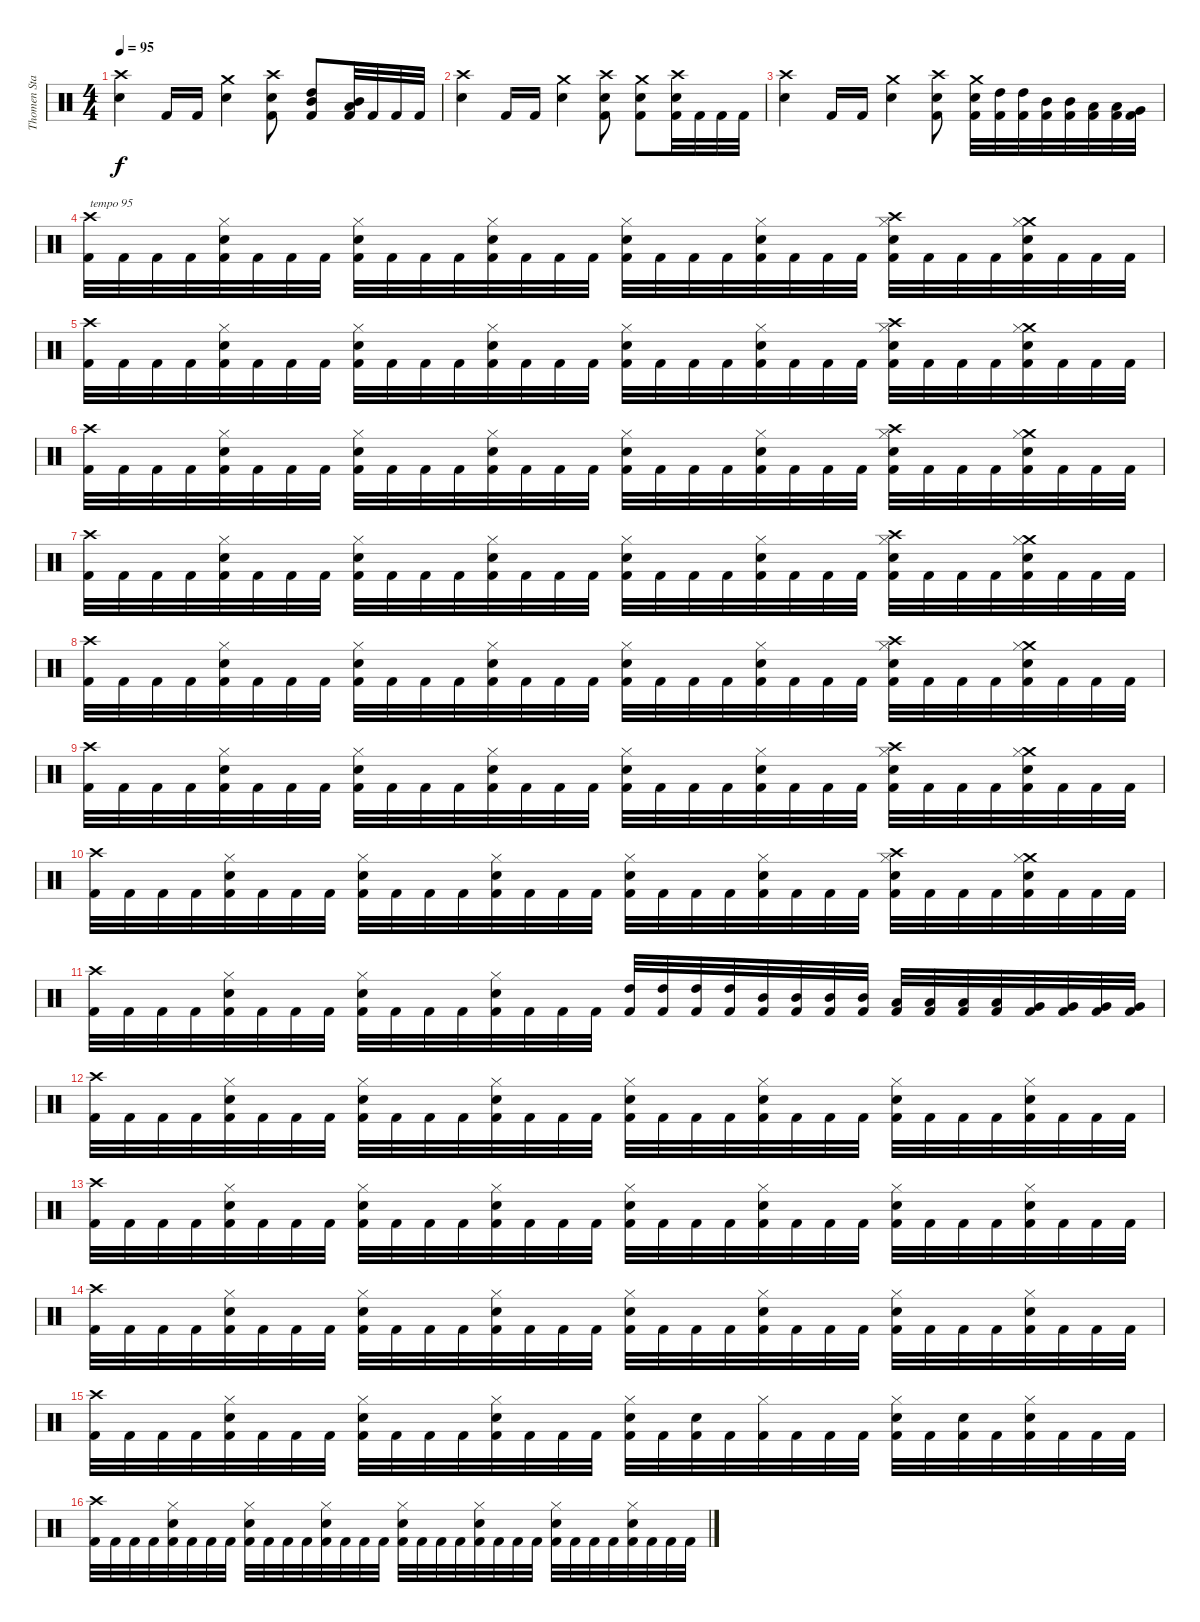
\track ("Thomen Stauch" "Thomen Sta") {instrument percussion}
\staff {score}
\articulation defaults
\ts (4 4)
\tempo 95
\clef neutral
\ks c
("Crash high (hit)" "Snare (hit) 2").4{dy f} "Kick (hit) 2".16 "Kick (hit) 2".16 ("Crash medium (hit)" "Snare (hit) 2").4 ("Crash high (hit)" "Snare (hit) 2" "Kick (hit) 2").8 ("High Tom (hit)" "Mid Tom (hit)" "Kick (hit) 2").8 ("Mid Tom (hit)" "Low Tom (hit)" "Kick (hit) 2").32 "Kick (hit) 2".32 "Kick (hit) 2".32 "Kick (hit) 2".32 |
("Crash high (hit)" "Snare (hit) 2").4 "Kick (hit) 2".16 "Kick (hit) 2".16 ("Crash medium (hit)" "Snare (hit) 2").4 ("Crash high (hit)" "Snare (hit) 2" "Kick (hit) 2").8 ("Crash medium (hit)" "Snare (hit) 2" "Kick (hit) 2").8 ("Crash high (hit)" "Snare (hit) 2" "Kick (hit) 2").32 "Kick (hit) 2".32 "Kick (hit) 2".32 "Kick (hit) 2".32 |
("Crash high (hit)" "Snare (hit) 2").4 "Kick (hit) 2".16 "Kick (hit) 2".16 ("Crash medium (hit)" "Snare (hit) 2").4 ("Crash high (hit)" "Snare (hit) 2" "Kick (hit) 2").8 ("Crash medium (hit)" "Snare (hit) 2" "Kick (hit) 2").32 ("High Tom (hit)" "Kick (hit) 2").32 ("High Tom (hit)" "Kick (hit) 2").32 ("Mid Tom (hit)" "Kick (hit) 2").32 ("Mid Tom (hit)" "Kick (hit) 2").32 ("Low Tom (hit)" "Kick (hit) 2").32 ("Low Tom (hit)" "Kick (hit) 2").32 ("Very Low Tom (hit)" "Kick (hit) 2").32 |
("Crash high (hit)" "Kick (hit) 2").32{txt "tempo 95"} "Kick (hit) 2".32 "Kick (hit) 2".32 "Kick (hit) 2".32 ("Hi-Hat (closed)" "Snare (hit) 2" "Kick (hit) 2").32 "Kick (hit) 2".32 "Kick (hit) 2".32 "Kick (hit) 2".32 ("Hi-Hat (closed)" "Snare (hit) 2" "Kick (hit) 2").32 "Kick (hit) 2".32 "Kick (hit) 2".32 "Kick (hit) 2".32 ("Hi-Hat (closed)" "Snare (hit) 2" "Kick (hit) 2").32 "Kick (hit) 2".32 "Kick (hit) 2".32 "Kick (hit) 2".32 ("Hi-Hat (closed)" "Snare (hit) 2" "Kick (hit) 2").32 "Kick (hit) 2".32 "Kick (hit) 2".32 "Kick (hit) 2".32 ("Hi-Hat (closed)" "Snare (hit) 2" "Kick (hit) 2").32 "Kick (hit) 2".32 "Kick (hit) 2".32 "Kick (hit) 2".32 ("Crash high (hit)" "Hi-Hat (closed)" "Snare (hit) 2" "Kick (hit) 2").32 "Kick (hit) 2".32 "Kick (hit) 2".32 "Kick (hit) 2".32 ("Crash medium (hit)" "Hi-Hat (closed)" "Snare (hit) 2" "Kick (hit) 2").32 "Kick (hit) 2".32 "Kick (hit) 2".32 "Kick (hit) 2".32 |
("Crash high (hit)" "Kick (hit) 2").32 "Kick (hit) 2".32 "Kick (hit) 2".32 "Kick (hit) 2".32 ("Hi-Hat (closed)" "Snare (hit) 2" "Kick (hit) 2").32 "Kick (hit) 2".32 "Kick (hit) 2".32 "Kick (hit) 2".32 ("Hi-Hat (closed)" "Snare (hit) 2" "Kick (hit) 2").32 "Kick (hit) 2".32 "Kick (hit) 2".32 "Kick (hit) 2".32 ("Hi-Hat (closed)" "Snare (hit) 2" "Kick (hit) 2").32 "Kick (hit) 2".32 "Kick (hit) 2".32 "Kick (hit) 2".32 ("Hi-Hat (closed)" "Snare (hit) 2" "Kick (hit) 2").32 "Kick (hit) 2".32 "Kick (hit) 2".32 "Kick (hit) 2".32 ("Hi-Hat (closed)" "Snare (hit) 2" "Kick (hit) 2").32 "Kick (hit) 2".32 "Kick (hit) 2".32 "Kick (hit) 2".32 ("Crash high (hit)" "Hi-Hat (closed)" "Snare (hit) 2" "Kick (hit) 2").32 "Kick (hit) 2".32 "Kick (hit) 2".32 "Kick (hit) 2".32 ("Crash medium (hit)" "Hi-Hat (closed)" "Snare (hit) 2" "Kick (hit) 2").32 "Kick (hit) 2".32 "Kick (hit) 2".32 "Kick (hit) 2".32 |
("Crash high (hit)" "Kick (hit) 2").32 "Kick (hit) 2".32 "Kick (hit) 2".32 "Kick (hit) 2".32 ("Hi-Hat (closed)" "Snare (hit) 2" "Kick (hit) 2").32 "Kick (hit) 2".32 "Kick (hit) 2".32 "Kick (hit) 2".32 ("Hi-Hat (closed)" "Snare (hit) 2" "Kick (hit) 2").32 "Kick (hit) 2".32 "Kick (hit) 2".32 "Kick (hit) 2".32 ("Hi-Hat (closed)" "Snare (hit) 2" "Kick (hit) 2").32 "Kick (hit) 2".32 "Kick (hit) 2".32 "Kick (hit) 2".32 ("Hi-Hat (closed)" "Snare (hit) 2" "Kick (hit) 2").32 "Kick (hit) 2".32 "Kick (hit) 2".32 "Kick (hit) 2".32 ("Hi-Hat (closed)" "Snare (hit) 2" "Kick (hit) 2").32 "Kick (hit) 2".32 "Kick (hit) 2".32 "Kick (hit) 2".32 ("Crash high (hit)" "Hi-Hat (closed)" "Snare (hit) 2" "Kick (hit) 2").32 "Kick (hit) 2".32 "Kick (hit) 2".32 "Kick (hit) 2".32 ("Crash medium (hit)" "Hi-Hat (closed)" "Snare (hit) 2" "Kick (hit) 2").32 "Kick (hit) 2".32 "Kick (hit) 2".32 "Kick (hit) 2".32 |
("Crash high (hit)" "Kick (hit) 2").32 "Kick (hit) 2".32 "Kick (hit) 2".32 "Kick (hit) 2".32 ("Hi-Hat (closed)" "Snare (hit) 2" "Kick (hit) 2").32 "Kick (hit) 2".32 "Kick (hit) 2".32 "Kick (hit) 2".32 ("Hi-Hat (closed)" "Snare (hit) 2" "Kick (hit) 2").32 "Kick (hit) 2".32 "Kick (hit) 2".32 "Kick (hit) 2".32 ("Hi-Hat (closed)" "Snare (hit) 2" "Kick (hit) 2").32 "Kick (hit) 2".32 "Kick (hit) 2".32 "Kick (hit) 2".32 ("Hi-Hat (closed)" "Snare (hit) 2" "Kick (hit) 2").32 "Kick (hit) 2".32 "Kick (hit) 2".32 "Kick (hit) 2".32 ("Hi-Hat (closed)" "Snare (hit) 2" "Kick (hit) 2").32 "Kick (hit) 2".32 "Kick (hit) 2".32 "Kick (hit) 2".32 ("Crash high (hit)" "Hi-Hat (closed)" "Snare (hit) 2" "Kick (hit) 2").32 "Kick (hit) 2".32 "Kick (hit) 2".32 "Kick (hit) 2".32 ("Crash medium (hit)" "Hi-Hat (closed)" "Snare (hit) 2" "Kick (hit) 2").32 "Kick (hit) 2".32 "Kick (hit) 2".32 "Kick (hit) 2".32 |
("Crash high (hit)" "Kick (hit) 2").32 "Kick (hit) 2".32 "Kick (hit) 2".32 "Kick (hit) 2".32 ("Hi-Hat (closed)" "Snare (hit) 2" "Kick (hit) 2").32 "Kick (hit) 2".32 "Kick (hit) 2".32 "Kick (hit) 2".32 ("Hi-Hat (closed)" "Snare (hit) 2" "Kick (hit) 2").32 "Kick (hit) 2".32 "Kick (hit) 2".32 "Kick (hit) 2".32 ("Hi-Hat (closed)" "Snare (hit) 2" "Kick (hit) 2").32 "Kick (hit) 2".32 "Kick (hit) 2".32 "Kick (hit) 2".32 ("Hi-Hat (closed)" "Snare (hit) 2" "Kick (hit) 2").32 "Kick (hit) 2".32 "Kick (hit) 2".32 "Kick (hit) 2".32 ("Hi-Hat (closed)" "Snare (hit) 2" "Kick (hit) 2").32 "Kick (hit) 2".32 "Kick (hit) 2".32 "Kick (hit) 2".32 ("Crash high (hit)" "Hi-Hat (closed)" "Snare (hit) 2" "Kick (hit) 2").32 "Kick (hit) 2".32 "Kick (hit) 2".32 "Kick (hit) 2".32 ("Crash medium (hit)" "Hi-Hat (closed)" "Snare (hit) 2" "Kick (hit) 2").32 "Kick (hit) 2".32 "Kick (hit) 2".32 "Kick (hit) 2".32 |
("Crash high (hit)" "Kick (hit) 2").32 "Kick (hit) 2".32 "Kick (hit) 2".32 "Kick (hit) 2".32 ("Hi-Hat (closed)" "Snare (hit) 2" "Kick (hit) 2").32 "Kick (hit) 2".32 "Kick (hit) 2".32 "Kick (hit) 2".32 ("Hi-Hat (closed)" "Snare (hit) 2" "Kick (hit) 2").32 "Kick (hit) 2".32 "Kick (hit) 2".32 "Kick (hit) 2".32 ("Hi-Hat (closed)" "Snare (hit) 2" "Kick (hit) 2").32 "Kick (hit) 2".32 "Kick (hit) 2".32 "Kick (hit) 2".32 ("Hi-Hat (closed)" "Snare (hit) 2" "Kick (hit) 2").32 "Kick (hit) 2".32 "Kick (hit) 2".32 "Kick (hit) 2".32 ("Hi-Hat (closed)" "Snare (hit) 2" "Kick (hit) 2").32 "Kick (hit) 2".32 "Kick (hit) 2".32 "Kick (hit) 2".32 ("Crash high (hit)" "Hi-Hat (closed)" "Snare (hit) 2" "Kick (hit) 2").32 "Kick (hit) 2".32 "Kick (hit) 2".32 "Kick (hit) 2".32 ("Crash medium (hit)" "Hi-Hat (closed)" "Snare (hit) 2" "Kick (hit) 2").32 "Kick (hit) 2".32 "Kick (hit) 2".32 "Kick (hit) 2".32 |
("Crash high (hit)" "Kick (hit) 2").32 "Kick (hit) 2".32 "Kick (hit) 2".32 "Kick (hit) 2".32 ("Hi-Hat (closed)" "Snare (hit) 2" "Kick (hit) 2").32 "Kick (hit) 2".32 "Kick (hit) 2".32 "Kick (hit) 2".32 ("Hi-Hat (closed)" "Snare (hit) 2" "Kick (hit) 2").32 "Kick (hit) 2".32 "Kick (hit) 2".32 "Kick (hit) 2".32 ("Hi-Hat (closed)" "Snare (hit) 2" "Kick (hit) 2").32 "Kick (hit) 2".32 "Kick (hit) 2".32 "Kick (hit) 2".32 ("Hi-Hat (closed)" "Snare (hit) 2" "Kick (hit) 2").32 "Kick (hit) 2".32 "Kick (hit) 2".32 "Kick (hit) 2".32 ("Hi-Hat (closed)" "Snare (hit) 2" "Kick (hit) 2").32 "Kick (hit) 2".32 "Kick (hit) 2".32 "Kick (hit) 2".32 ("Crash high (hit)" "Hi-Hat (closed)" "Snare (hit) 2" "Kick (hit) 2").32 "Kick (hit) 2".32 "Kick (hit) 2".32 "Kick (hit) 2".32 ("Crash medium (hit)" "Hi-Hat (closed)" "Snare (hit) 2" "Kick (hit) 2").32 "Kick (hit) 2".32 "Kick (hit) 2".32 "Kick (hit) 2".32 |
("Crash high (hit)" "Kick (hit) 2").32 "Kick (hit) 2".32 "Kick (hit) 2".32 "Kick (hit) 2".32 ("Hi-Hat (closed)" "Snare (hit) 2" "Kick (hit) 2").32 "Kick (hit) 2".32 "Kick (hit) 2".32 "Kick (hit) 2".32 ("Hi-Hat (closed)" "Snare (hit) 2" "Kick (hit) 2").32 "Kick (hit) 2".32 "Kick (hit) 2".32 "Kick (hit) 2".32 ("Hi-Hat (closed)" "Snare (hit) 2" "Kick (hit) 2").32 "Kick (hit) 2".32 "Kick (hit) 2".32 "Kick (hit) 2".32 ("High Tom (hit)" "Kick (hit) 2").32 ("High Tom (hit)" "Kick (hit) 2").32 ("High Tom (hit)" "Kick (hit) 2").32 ("High Tom (hit)" "Kick (hit) 2").32 ("Mid Tom (hit)" "Kick (hit) 2").32 ("Mid Tom (hit)" "Kick (hit) 2").32 ("Mid Tom (hit)" "Kick (hit) 2").32 ("Mid Tom (hit)" "Kick (hit) 2").32 ("Low Tom (hit)" "Kick (hit) 2").32 ("Low Tom (hit)" "Kick (hit) 2").32 ("Low Tom (hit)" "Kick (hit) 2").32 ("Low Tom (hit)" "Kick (hit) 2").32 ("Very Low Tom (hit)" "Kick (hit) 2").32 ("Very Low Tom (hit)" "Kick (hit) 2").32 ("Very Low Tom (hit)" "Kick (hit) 2").32 ("Very Low Tom (hit)" "Kick (hit) 2").32 |
("Crash high (hit)" "Kick (hit) 2").32 "Kick (hit) 2".32 "Kick (hit) 2".32 "Kick (hit) 2".32 ("Hi-Hat (closed)" "Snare (hit) 2" "Kick (hit) 2").32 "Kick (hit) 2".32 "Kick (hit) 2".32 "Kick (hit) 2".32 ("Hi-Hat (closed)" "Snare (hit) 2" "Kick (hit) 2").32 "Kick (hit) 2".32 "Kick (hit) 2".32 "Kick (hit) 2".32 ("Hi-Hat (closed)" "Snare (hit) 2" "Kick (hit) 2").32 "Kick (hit) 2".32 "Kick (hit) 2".32 "Kick (hit) 2".32 ("Hi-Hat (closed)" "Snare (hit) 2" "Kick (hit) 2").32 "Kick (hit) 2".32 "Kick (hit) 2".32 "Kick (hit) 2".32 ("Hi-Hat (closed)" "Snare (hit) 2" "Kick (hit) 2").32 "Kick (hit) 2".32 "Kick (hit) 2".32 "Kick (hit) 2".32 ("Hi-Hat (closed)" "Snare (hit) 2" "Kick (hit) 2").32 "Kick (hit) 2".32 "Kick (hit) 2".32 "Kick (hit) 2".32 ("Hi-Hat (closed)" "Snare (hit) 2" "Kick (hit) 2").32 "Kick (hit) 2".32 "Kick (hit) 2".32 "Kick (hit) 2".32 |
("Crash high (hit)" "Kick (hit) 2").32 "Kick (hit) 2".32 "Kick (hit) 2".32 "Kick (hit) 2".32 ("Hi-Hat (closed)" "Snare (hit) 2" "Kick (hit) 2").32 "Kick (hit) 2".32 "Kick (hit) 2".32 "Kick (hit) 2".32 ("Hi-Hat (closed)" "Snare (hit) 2" "Kick (hit) 2").32 "Kick (hit) 2".32 "Kick (hit) 2".32 "Kick (hit) 2".32 ("Hi-Hat (closed)" "Snare (hit) 2" "Kick (hit) 2").32 "Kick (hit) 2".32 "Kick (hit) 2".32 "Kick (hit) 2".32 ("Hi-Hat (closed)" "Snare (hit) 2" "Kick (hit) 2").32 "Kick (hit) 2".32 "Kick (hit) 2".32 "Kick (hit) 2".32 ("Hi-Hat (closed)" "Snare (hit) 2" "Kick (hit) 2").32 "Kick (hit) 2".32 "Kick (hit) 2".32 "Kick (hit) 2".32 ("Hi-Hat (closed)" "Snare (hit) 2" "Kick (hit) 2").32 "Kick (hit) 2".32 "Kick (hit) 2".32 "Kick (hit) 2".32 ("Hi-Hat (closed)" "Snare (hit) 2" "Kick (hit) 2").32 "Kick (hit) 2".32 "Kick (hit) 2".32 "Kick (hit) 2".32 |
("Crash high (hit)" "Kick (hit) 2").32 "Kick (hit) 2".32 "Kick (hit) 2".32 "Kick (hit) 2".32 ("Hi-Hat (closed)" "Snare (hit) 2" "Kick (hit) 2").32 "Kick (hit) 2".32 "Kick (hit) 2".32 "Kick (hit) 2".32 ("Hi-Hat (closed)" "Snare (hit) 2" "Kick (hit) 2").32 "Kick (hit) 2".32 "Kick (hit) 2".32 "Kick (hit) 2".32 ("Hi-Hat (closed)" "Snare (hit) 2" "Kick (hit) 2").32 "Kick (hit) 2".32 "Kick (hit) 2".32 "Kick (hit) 2".32 ("Hi-Hat (closed)" "Snare (hit) 2" "Kick (hit) 2").32 "Kick (hit) 2".32 "Kick (hit) 2".32 "Kick (hit) 2".32 ("Hi-Hat (closed)" "Snare (hit) 2" "Kick (hit) 2").32 "Kick (hit) 2".32 "Kick (hit) 2".32 "Kick (hit) 2".32 ("Hi-Hat (closed)" "Snare (hit) 2" "Kick (hit) 2").32 "Kick (hit) 2".32 "Kick (hit) 2".32 "Kick (hit) 2".32 ("Hi-Hat (closed)" "Snare (hit) 2" "Kick (hit) 2").32 "Kick (hit) 2".32 "Kick (hit) 2".32 "Kick (hit) 2".32 |
("Crash high (hit)" "Kick (hit) 2").32 "Kick (hit) 2".32 "Kick (hit) 2".32 "Kick (hit) 2".32 ("Hi-Hat (closed)" "Snare (hit) 2" "Kick (hit) 2").32 "Kick (hit) 2".32 "Kick (hit) 2".32 "Kick (hit) 2".32 ("Hi-Hat (closed)" "Snare (hit) 2" "Kick (hit) 2").32 "Kick (hit) 2".32 "Kick (hit) 2".32 "Kick (hit) 2".32 ("Hi-Hat (closed)" "Snare (hit) 2" "Kick (hit) 2").32 "Kick (hit) 2".32 "Kick (hit) 2".32 "Kick (hit) 2".32 ("Hi-Hat (closed)" "Snare (hit) 2" "Kick (hit) 2").32 "Kick (hit) 2".32 ("Snare (hit) 2" "Kick (hit) 2").32 "Kick (hit) 2".32 ("Hi-Hat (closed)" "Kick (hit) 2").32 "Kick (hit) 2".32 "Kick (hit) 2".32 "Kick (hit) 2".32 ("Hi-Hat (closed)" "Snare (hit) 2" "Kick (hit) 2").32 "Kick (hit) 2".32 ("Snare (hit) 2" "Kick (hit) 2").32 "Kick (hit) 2".32 ("Hi-Hat (closed)" "Snare (hit) 2" "Kick (hit) 2").32 "Kick (hit) 2".32 "Kick (hit) 2".32 "Kick (hit) 2".32 |
("Crash high (hit)" "Kick (hit) 2").32 "Kick (hit) 2".32 "Kick (hit) 2".32 "Kick (hit) 2".32 ("Hi-Hat (closed)" "Snare (hit) 2" "Kick (hit) 2").32 "Kick (hit) 2".32 "Kick (hit) 2".32 "Kick (hit) 2".32 ("Hi-Hat (closed)" "Snare (hit) 2" "Kick (hit) 2").32 "Kick (hit) 2".32 "Kick (hit) 2".32 "Kick (hit) 2".32 ("Hi-Hat (closed)" "Snare (hit) 2" "Kick (hit) 2").32 "Kick (hit) 2".32 "Kick (hit) 2".32 "Kick (hit) 2".32 ("Hi-Hat (closed)" "Snare (hit) 2" "Kick (hit) 2").32 "Kick (hit) 2".32 "Kick (hit) 2".32 "Kick (hit) 2".32 ("Hi-Hat (closed)" "Snare (hit) 2" "Kick (hit) 2").32 "Kick (hit) 2".32 "Kick (hit) 2".32 "Kick (hit) 2".32 ("Hi-Hat (closed)" "Snare (hit) 2" "Kick (hit) 2").32 "Kick (hit) 2".32 "Kick (hit) 2".32 "Kick (hit) 2".32 ("Hi-Hat (closed)" "Snare (hit) 2" "Kick (hit) 2").32 "Kick (hit) 2".32 "Kick (hit) 2".32 "Kick (hit) 2".32
